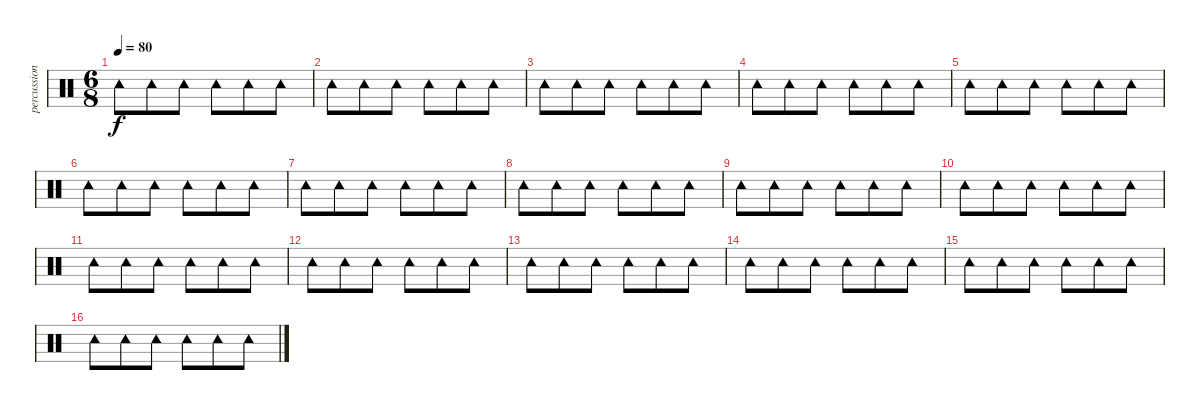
\track ("percussions 2" "percussion") {instrument percussion}
\staff {score}
\articulation defaults
\ts (6 8)
\tempo 80
\clef neutral
\ks c "Tambourine (hit)".8{dy f} "Tambourine (hit)".8 "Tambourine (hit)".8 "Tambourine (hit)".8 "Tambourine (hit)".8 "Tambourine (hit)".8
|
"Tambourine (hit)".8 "Tambourine (hit)".8 "Tambourine (hit)".8 "Tambourine (hit)".8 "Tambourine (hit)".8 "Tambourine (hit)".8 |
"Tambourine (hit)".8 "Tambourine (hit)".8 "Tambourine (hit)".8 "Tambourine (hit)".8 "Tambourine (hit)".8 "Tambourine (hit)".8 |
"Tambourine (hit)".8 "Tambourine (hit)".8 "Tambourine (hit)".8 "Tambourine (hit)".8 "Tambourine (hit)".8 "Tambourine (hit)".8 |
"Tambourine (hit)".8 "Tambourine (hit)".8 "Tambourine (hit)".8 "Tambourine (hit)".8 "Tambourine (hit)".8 "Tambourine (hit)".8 |
"Tambourine (hit)".8 "Tambourine (hit)".8 "Tambourine (hit)".8 "Tambourine (hit)".8 "Tambourine (hit)".8 "Tambourine (hit)".8 |
"Tambourine (hit)".8 "Tambourine (hit)".8 "Tambourine (hit)".8 "Tambourine (hit)".8 "Tambourine (hit)".8 "Tambourine (hit)".8 |
"Tambourine (hit)".8 "Tambourine (hit)".8 "Tambourine (hit)".8 "Tambourine (hit)".8 "Tambourine (hit)".8 "Tambourine (hit)".8 |
"Tambourine (hit)".8 "Tambourine (hit)".8 "Tambourine (hit)".8 "Tambourine (hit)".8 "Tambourine (hit)".8 "Tambourine (hit)".8 |
"Tambourine (hit)".8 "Tambourine (hit)".8 "Tambourine (hit)".8 "Tambourine (hit)".8 "Tambourine (hit)".8 "Tambourine (hit)".8 |
"Tambourine (hit)".8 "Tambourine (hit)".8 "Tambourine (hit)".8 "Tambourine (hit)".8 "Tambourine (hit)".8 "Tambourine (hit)".8 |
"Tambourine (hit)".8 "Tambourine (hit)".8 "Tambourine (hit)".8 "Tambourine (hit)".8 "Tambourine (hit)".8 "Tambourine (hit)".8 |
"Tambourine (hit)".8 "Tambourine (hit)".8 "Tambourine (hit)".8 "Tambourine (hit)".8 "Tambourine (hit)".8 "Tambourine (hit)".8 |
"Tambourine (hit)".8 "Tambourine (hit)".8 "Tambourine (hit)".8 "Tambourine (hit)".8 "Tambourine (hit)".8 "Tambourine (hit)".8 |
"Tambourine (hit)".8 "Tambourine (hit)".8 "Tambourine (hit)".8 "Tambourine (hit)".8 "Tambourine (hit)".8 "Tambourine (hit)".8 |
"Tambourine (hit)".8 "Tambourine (hit)".8 "Tambourine (hit)".8 "Tambourine (hit)".8 "Tambourine (hit)".8 "Tambourine (hit)".8
